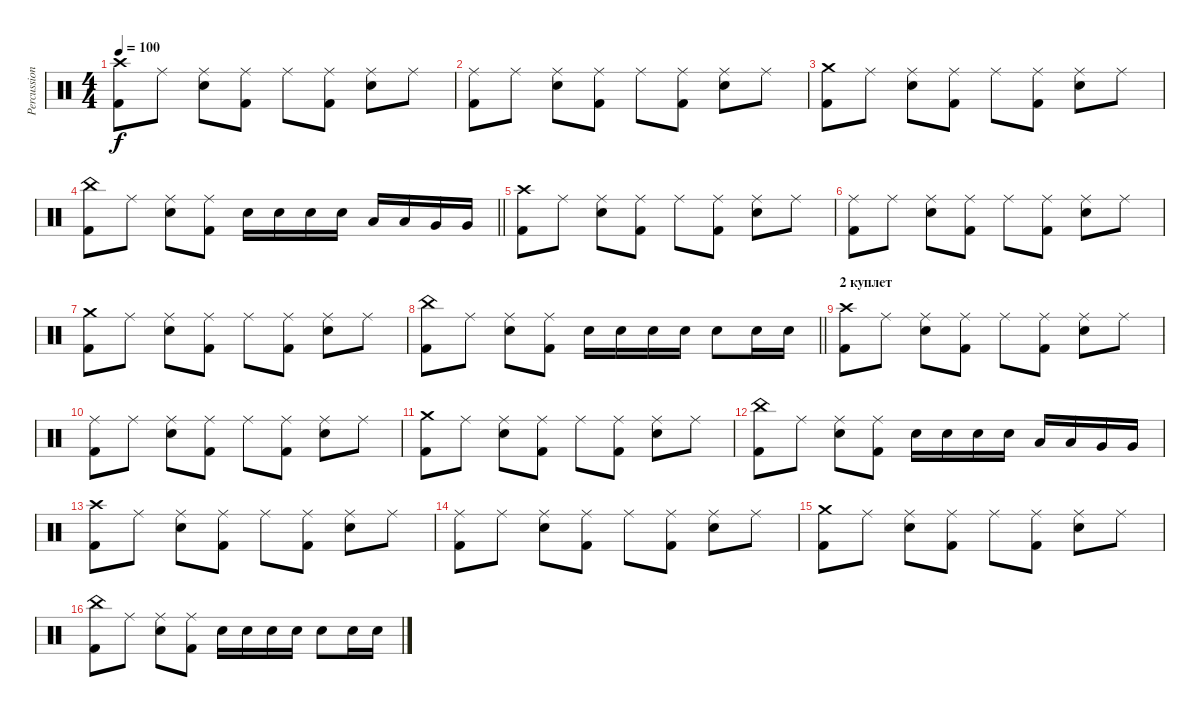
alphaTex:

\track ("Percussion" "Percussion") {instrument percussion}
\staff {score}
\articulation defaults
\ts (4 4)
\tempo 100
\clef neutral
\ks c
("Crash high (hit)" "Kick (hit) 2").8{dy f} "Ride (middle)".8 ("Ride (middle)" "Snare (hit) 2").8 ("Ride (middle)" "Kick (hit) 2").8 "Ride (middle)".8 ("Ride (middle)" "Kick (hit) 2").8 ("Ride (middle)" "Snare (hit) 2").8 "Ride (middle)".8 |
("Ride (middle)" "Kick (hit) 2").8 "Ride (middle)".8 ("Ride (middle)" "Snare (hit) 2").8 ("Ride (middle)" "Kick (hit) 2").8 "Ride (middle)".8 ("Ride (middle)" "Kick (hit) 2").8 ("Ride (middle)" "Snare (hit) 2").8 "Ride (middle)".8 |
("Crash medium (hit)" "Kick (hit) 2").8 "Ride (middle)".8 ("Ride (middle)" "Snare (hit) 2").8 ("Ride (middle)" "Kick (hit) 2").8 "Ride (middle)".8 ("Ride (middle)" "Kick (hit) 2").8 ("Ride (middle)" "Snare (hit) 2").8 "Ride (middle)".8 |
\barLineRight lightlight
("China (hit)" "Kick (hit) 2").8 "Ride (middle)".8 ("Ride (middle)" "Snare (hit) 2").8 ("Ride (middle)" "Kick (hit) 2").8 "Snare (hit) 2".16 "Snare (hit) 2".16 "Snare (hit) 2".16 "Snare (hit) 2".16 "Low Tom (hit)".16 "Low Tom (hit)".16 "Very Low Tom (hit)".16 "Very Low Tom (hit)".16 |
("Crash high (hit)" "Kick (hit) 2").8 "Ride (middle)".8 ("Ride (middle)" "Snare (hit) 2").8 ("Ride (middle)" "Kick (hit) 2").8 "Ride (middle)".8 ("Ride (middle)" "Kick (hit) 2").8 ("Ride (middle)" "Snare (hit) 2").8 "Ride (middle)".8 |
("Ride (middle)" "Kick (hit) 2").8 "Ride (middle)".8 ("Ride (middle)" "Snare (hit) 2").8 ("Ride (middle)" "Kick (hit) 2").8 "Ride (middle)".8 ("Ride (middle)" "Kick (hit) 2").8 ("Ride (middle)" "Snare (hit) 2").8 "Ride (middle)".8 |
("Crash medium (hit)" "Kick (hit) 2").8 "Ride (middle)".8 ("Ride (middle)" "Snare (hit) 2").8 ("Ride (middle)" "Kick (hit) 2").8 "Ride (middle)".8 ("Ride (middle)" "Kick (hit) 2").8 ("Ride (middle)" "Snare (hit) 2").8 "Ride (middle)".8 |
\barLineRight lightlight
("China (hit)" "Kick (hit) 2").8 "Ride (middle)".8 ("Ride (middle)" "Snare (hit) 2").8 ("Ride (middle)" "Kick (hit) 2").8 "Snare (hit) 2".16 "Snare (hit) 2".16 "Snare (hit) 2".16 "Snare (hit) 2".16 "Snare (hit) 2".8 "Snare (hit) 2".16 "Snare (hit) 2".16 |
\section ("" "2 куплет")
("Crash high (hit)" "Kick (hit) 2").8 "Ride (middle)".8 ("Ride (middle)" "Snare (hit) 2").8 ("Ride (middle)" "Kick (hit) 2").8 "Ride (middle)".8 ("Ride (middle)" "Kick (hit) 2").8 ("Ride (middle)" "Snare (hit) 2").8 "Ride (middle)".8 |
("Ride (middle)" "Kick (hit) 2").8 "Ride (middle)".8 ("Ride (middle)" "Snare (hit) 2").8 ("Ride (middle)" "Kick (hit) 2").8 "Ride (middle)".8 ("Ride (middle)" "Kick (hit) 2").8 ("Ride (middle)" "Snare (hit) 2").8 "Ride (middle)".8 |
("Crash medium (hit)" "Kick (hit) 2").8 "Ride (middle)".8 ("Ride (middle)" "Snare (hit) 2").8 ("Ride (middle)" "Kick (hit) 2").8 "Ride (middle)".8 ("Ride (middle)" "Kick (hit) 2").8 ("Ride (middle)" "Snare (hit) 2").8 "Ride (middle)".8 |
("China (hit)" "Kick (hit) 2").8 "Ride (middle)".8 ("Ride (middle)" "Snare (hit) 2").8 ("Ride (middle)" "Kick (hit) 2").8 "Snare (hit) 2".16 "Snare (hit) 2".16 "Snare (hit) 2".16 "Snare (hit) 2".16 "Low Tom (hit)".16 "Low Tom (hit)".16 "Very Low Tom (hit)".16 "Very Low Tom (hit)".16 |
("Crash high (hit)" "Kick (hit) 2").8 "Ride (middle)".8 ("Ride (middle)" "Snare (hit) 2").8 ("Ride (middle)" "Kick (hit) 2").8 "Ride (middle)".8 ("Ride (middle)" "Kick (hit) 2").8 ("Ride (middle)" "Snare (hit) 2").8 "Ride (middle)".8 |
("Ride (middle)" "Kick (hit) 2").8 "Ride (middle)".8 ("Ride (middle)" "Snare (hit) 2").8 ("Ride (middle)" "Kick (hit) 2").8 "Ride (middle)".8 ("Ride (middle)" "Kick (hit) 2").8 ("Ride (middle)" "Snare (hit) 2").8 "Ride (middle)".8 |
("Crash medium (hit)" "Kick (hit) 2").8 "Ride (middle)".8 ("Ride (middle)" "Snare (hit) 2").8 ("Ride (middle)" "Kick (hit) 2").8 "Ride (middle)".8 ("Ride (middle)" "Kick (hit) 2").8 ("Ride (middle)" "Snare (hit) 2").8 "Ride (middle)".8 |
("China (hit)" "Kick (hit) 2").8 "Ride (middle)".8 ("Ride (middle)" "Snare (hit) 2").8 ("Ride (middle)" "Kick (hit) 2").8 "Snare (hit) 2".16 "Snare (hit) 2".16 "Snare (hit) 2".16 "Snare (hit) 2".16 "Snare (hit) 2".8 "Snare (hit) 2".16 "Snare (hit) 2".16
